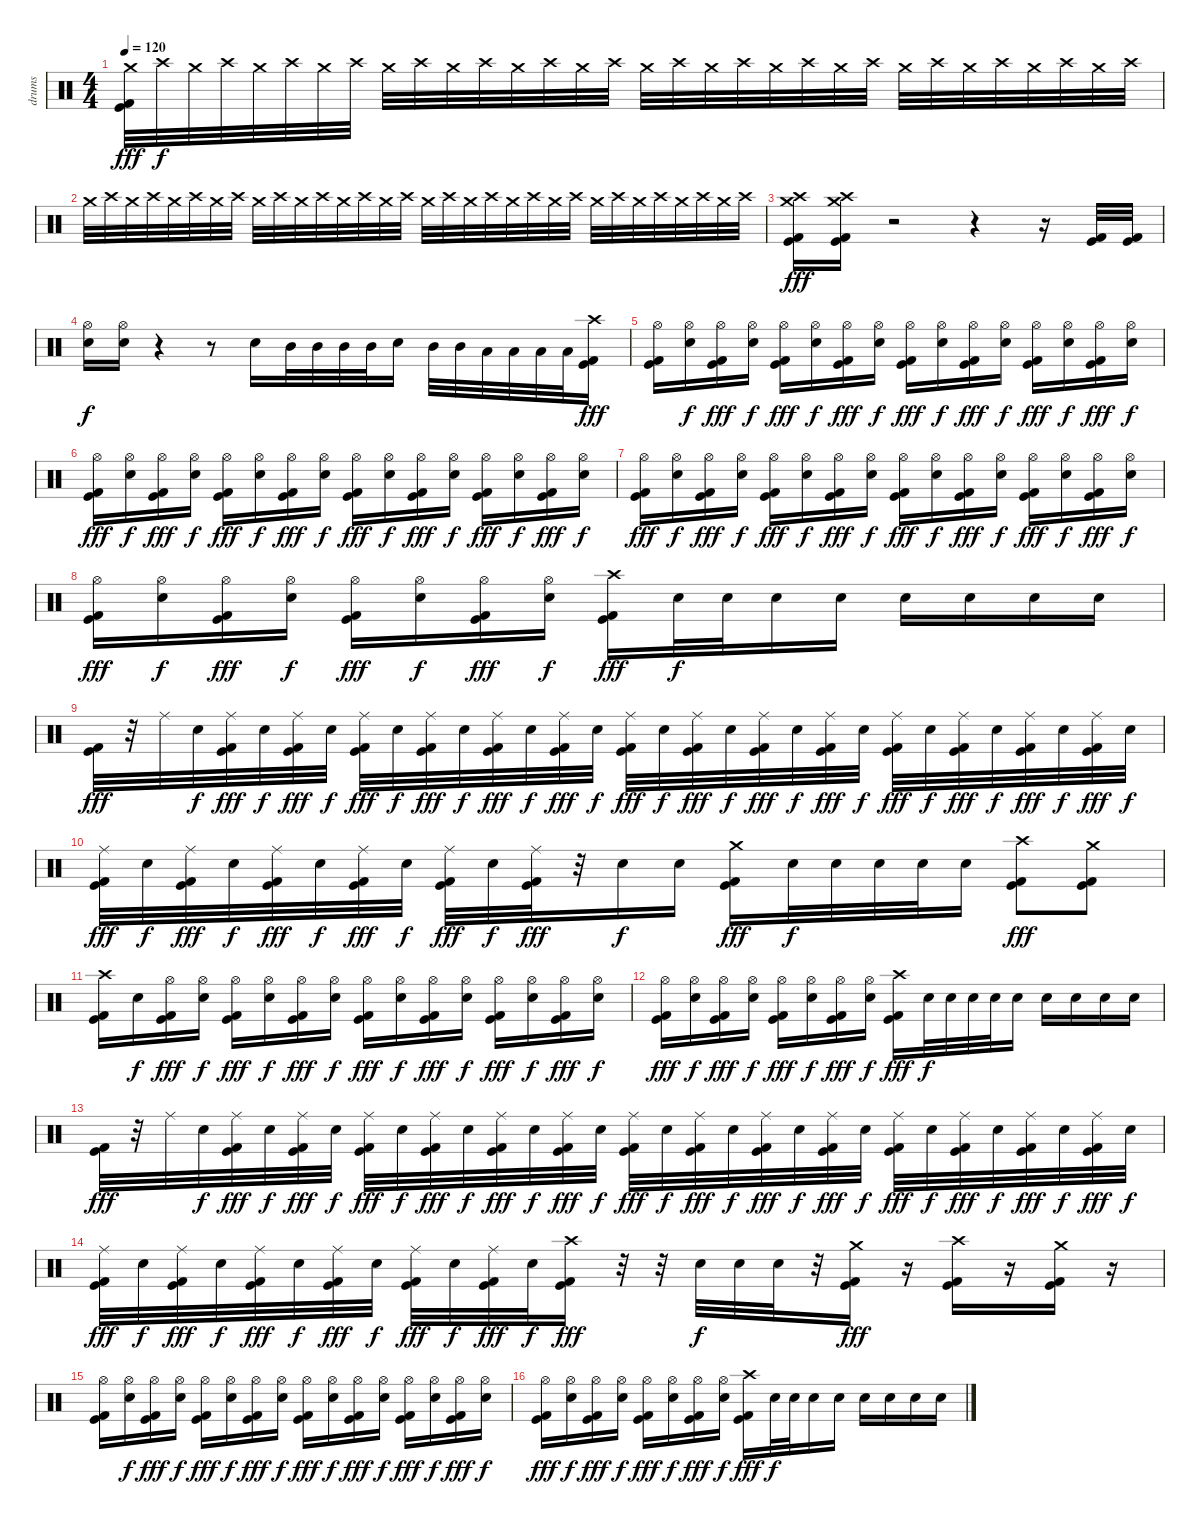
\track ("drums" "drums") {instrument percussion}
\staff {score}
\articulation defaults
\ts (4 4)
\tempo 120
\clef neutral
\ks c
("Crash medium (hit)" "Kick (hit)" "Kick (hit) 2").32{dy fff} "Crash high (hit)".32{dy f} "Crash medium (hit)".32 "Crash high (hit)".32 "Crash medium (hit)".32 "Crash high (hit)".32 "Crash medium (hit)".32 "Crash high (hit)".32 "Crash medium (hit)".32 "Crash high (hit)".32 "Crash medium (hit)".32 "Crash high (hit)".32 "Crash medium (hit)".32 "Crash high (hit)".32 "Crash medium (hit)".32 "Crash high (hit)".32 "Crash medium (hit)".32 "Crash high (hit)".32 "Crash medium (hit)".32 "Crash high (hit)".32 "Crash medium (hit)".32 "Crash high (hit)".32 "Crash medium (hit)".32 "Crash high (hit)".32 "Crash medium (hit)".32 "Crash high (hit)".32 "Crash medium (hit)".32 "Crash high (hit)".32 "Crash medium (hit)".32 "Crash high (hit)".32 "Crash medium (hit)".32 "Crash high (hit)".32 |
"Crash medium (hit)".32 "Crash high (hit)".32 "Crash medium (hit)".32 "Crash high (hit)".32 "Crash medium (hit)".32 "Crash high (hit)".32 "Crash medium (hit)".32 "Crash high (hit)".32 "Crash medium (hit)".32 "Crash high (hit)".32 "Crash medium (hit)".32 "Crash high (hit)".32 "Crash medium (hit)".32 "Crash high (hit)".32 "Crash medium (hit)".32 "Crash high (hit)".32 "Crash medium (hit)".32 "Crash high (hit)".32 "Crash medium (hit)".32 "Crash high (hit)".32 "Crash medium (hit)".32 "Crash high (hit)".32 "Crash medium (hit)".32 "Crash high (hit)".32 "Crash medium (hit)".32 "Crash high (hit)".32 "Crash medium (hit)".32 "Crash high (hit)".32 "Crash medium (hit)".32 "Crash high (hit)".32 "Crash medium (hit)".32 "Crash high (hit)".32 |
("Crash medium (hit)" "Crash high (hit)" "Kick (hit)" "Kick (hit) 2").16{dy fff} ("Crash medium (hit)" "Crash high (hit)" "Kick (hit)" "Kick (hit) 2").16 r.2 r.4 r.16 ("Kick (hit)" "Kick (hit) 2").32 ("Kick (hit)" "Kick (hit) 2").32 |
("Hi-Hat (open)" "Electric Snare (hit)").16{dy f} ("Hi-Hat (open)" "Electric Snare (hit)").16 r.4 r.8 "Electric Snare (hit)".16 "Mid Tom (hit)".32 "Mid Tom (hit)".32 "Mid Tom (hit)".32 "Mid Tom (hit)".32 "Electric Snare (hit)".16 "Mid Tom (hit)".32 "Mid Tom (hit)".32 "Low Tom (hit)".32 "Low Tom (hit)".32 "Low Tom (hit)".32 "Low Tom (hit)".32 ("Crash high (hit)" "Kick (hit)" "Kick (hit) 2").16{dy fff} |
("Hi-Hat (open)" "Kick (hit)" "Kick (hit) 2").16 ("Hi-Hat (open)" "Electric Snare (hit)").16{dy f} ("Hi-Hat (open)" "Kick (hit)" "Kick (hit) 2").16{dy fff} ("Hi-Hat (open)" "Electric Snare (hit)").16{dy f} ("Hi-Hat (open)" "Kick (hit)" "Kick (hit) 2").16{dy fff} ("Hi-Hat (open)" "Electric Snare (hit)").16{dy f} ("Hi-Hat (open)" "Kick (hit)" "Kick (hit) 2").16{dy fff} ("Hi-Hat (open)" "Electric Snare (hit)").16{dy f} ("Hi-Hat (open)" "Kick (hit)" "Kick (hit) 2").16{dy fff} ("Hi-Hat (open)" "Electric Snare (hit)").16{dy f} ("Hi-Hat (open)" "Kick (hit)" "Kick (hit) 2").16{dy fff} ("Hi-Hat (open)" "Electric Snare (hit)").16{dy f} ("Hi-Hat (open)" "Kick (hit)" "Kick (hit) 2").16{dy fff} ("Hi-Hat (open)" "Electric Snare (hit)").16{dy f} ("Hi-Hat (open)" "Kick (hit)" "Kick (hit) 2").16{dy fff} ("Hi-Hat (open)" "Electric Snare (hit)").16{dy f} |
("Hi-Hat (open)" "Kick (hit)" "Kick (hit) 2").16{dy fff} ("Hi-Hat (open)" "Electric Snare (hit)").16{dy f} ("Hi-Hat (open)" "Kick (hit)" "Kick (hit) 2").16{dy fff} ("Hi-Hat (open)" "Electric Snare (hit)").16{dy f} ("Hi-Hat (open)" "Kick (hit)" "Kick (hit) 2").16{dy fff} ("Hi-Hat (open)" "Electric Snare (hit)").16{dy f} ("Hi-Hat (open)" "Kick (hit)" "Kick (hit) 2").16{dy fff} ("Hi-Hat (open)" "Electric Snare (hit)").16{dy f} ("Hi-Hat (open)" "Kick (hit)" "Kick (hit) 2").16{dy fff} ("Hi-Hat (open)" "Electric Snare (hit)").16{dy f} ("Hi-Hat (open)" "Kick (hit)" "Kick (hit) 2").16{dy fff} ("Hi-Hat (open)" "Electric Snare (hit)").16{dy f} ("Hi-Hat (open)" "Kick (hit)" "Kick (hit) 2").16{dy fff} ("Hi-Hat (open)" "Electric Snare (hit)").16{dy f} ("Hi-Hat (open)" "Kick (hit)" "Kick (hit) 2").16{dy fff} ("Hi-Hat (open)" "Electric Snare (hit)").16{dy f} |
("Hi-Hat (open)" "Kick (hit)" "Kick (hit) 2").16{dy fff} ("Hi-Hat (open)" "Electric Snare (hit)").16{dy f} ("Hi-Hat (open)" "Kick (hit)" "Kick (hit) 2").16{dy fff} ("Hi-Hat (open)" "Electric Snare (hit)").16{dy f} ("Hi-Hat (open)" "Kick (hit)" "Kick (hit) 2").16{dy fff} ("Hi-Hat (open)" "Electric Snare (hit)").16{dy f} ("Hi-Hat (open)" "Kick (hit)" "Kick (hit) 2").16{dy fff} ("Hi-Hat (open)" "Electric Snare (hit)").16{dy f} ("Hi-Hat (open)" "Kick (hit)" "Kick (hit) 2").16{dy fff} ("Hi-Hat (open)" "Electric Snare (hit)").16{dy f} ("Hi-Hat (open)" "Kick (hit)" "Kick (hit) 2").16{dy fff} ("Hi-Hat (open)" "Electric Snare (hit)").16{dy f} ("Hi-Hat (open)" "Kick (hit)" "Kick (hit) 2").16{dy fff} ("Hi-Hat (open)" "Electric Snare (hit)").16{dy f} ("Hi-Hat (open)" "Kick (hit)" "Kick (hit) 2").16{dy fff} ("Hi-Hat (open)" "Electric Snare (hit)").16{dy f} |
("Hi-Hat (open)" "Kick (hit)" "Kick (hit) 2").16{dy fff} ("Hi-Hat (open)" "Electric Snare (hit)").16{dy f} ("Hi-Hat (open)" "Kick (hit)" "Kick (hit) 2").16{dy fff} ("Hi-Hat (open)" "Electric Snare (hit)").16{dy f} ("Hi-Hat (open)" "Kick (hit)" "Kick (hit) 2").16{dy fff} ("Hi-Hat (open)" "Electric Snare (hit)").16{dy f} ("Hi-Hat (open)" "Kick (hit)" "Kick (hit) 2").16{dy fff} ("Hi-Hat (open)" "Electric Snare (hit)").16{dy f} ("Crash high (hit)" "Kick (hit)" "Kick (hit) 2").16{dy fff} "Electric Snare (hit)".32{dy f} "Electric Snare (hit)".32 "Electric Snare (hit)".16 "Electric Snare (hit)".16 "Electric Snare (hit)".16 "Electric Snare (hit)".16 "Electric Snare (hit)".16 "Electric Snare (hit)".16 |
("Kick (hit)" "Kick (hit) 2").32{dy fff} r.32 "Ride (middle)".32 "Electric Snare (hit)".32{dy f} ("Ride (middle)" "Kick (hit)" "Kick (hit) 2").32{dy fff} "Electric Snare (hit)".32{dy f} ("Ride (middle)" "Kick (hit)" "Kick (hit) 2").32{dy fff} "Electric Snare (hit)".32{dy f} ("Ride (middle)" "Kick (hit)" "Kick (hit) 2").32{dy fff} "Electric Snare (hit)".32{dy f} ("Ride (middle)" "Kick (hit)" "Kick (hit) 2").32{dy fff} "Electric Snare (hit)".32{dy f} ("Ride (middle)" "Kick (hit)" "Kick (hit) 2").32{dy fff} "Electric Snare (hit)".32{dy f} ("Ride (middle)" "Kick (hit)" "Kick (hit) 2").32{dy fff} "Electric Snare (hit)".32{dy f} ("Ride (middle)" "Kick (hit)" "Kick (hit) 2").32{dy fff} "Electric Snare (hit)".32{dy f} ("Ride (middle)" "Kick (hit)" "Kick (hit) 2").32{dy fff} "Electric Snare (hit)".32{dy f} ("Ride (middle)" "Kick (hit)" "Kick (hit) 2").32{dy fff} "Electric Snare (hit)".32{dy f} ("Ride (middle)" "Kick (hit)" "Kick (hit) 2").32{dy fff} "Electric Snare (hit)".32{dy f} ("Ride (middle)" "Kick (hit)" "Kick (hit) 2").32{dy fff} "Electric Snare (hit)".32{dy f} ("Ride (middle)" "Kick (hit)" "Kick (hit) 2").32{dy fff} "Electric Snare (hit)".32{dy f} ("Ride (middle)" "Kick (hit)" "Kick (hit) 2").32{dy fff} "Electric Snare (hit)".32{dy f} ("Ride (middle)" "Kick (hit)" "Kick (hit) 2").32{dy fff} "Electric Snare (hit)".32{dy f} |
("Ride (middle)" "Kick (hit)" "Kick (hit) 2").32{dy fff} "Electric Snare (hit)".32{dy f} ("Ride (middle)" "Kick (hit)" "Kick (hit) 2").32{dy fff} "Electric Snare (hit)".32{dy f} ("Ride (middle)" "Kick (hit)" "Kick (hit) 2").32{dy fff} "Electric Snare (hit)".32{dy f} ("Ride (middle)" "Kick (hit)" "Kick (hit) 2").32{dy fff} "Electric Snare (hit)".32{dy f} ("Ride (middle)" "Kick (hit)" "Kick (hit) 2").32{dy fff} "Electric Snare (hit)".32{dy f} ("Ride (middle)" "Kick (hit)" "Kick (hit) 2").32{dy fff} r.32 "Electric Snare (hit)".16{dy f} "Electric Snare (hit)".16 ("Crash medium (hit)" "Kick (hit)" "Kick (hit) 2").16{dy fff} "Electric Snare (hit)".32{dy f} "Electric Snare (hit)".32 "Electric Snare (hit)".32 "Electric Snare (hit)".32 "Electric Snare (hit)".16 ("Crash high (hit)" "Kick (hit)" "Kick (hit) 2").8{dy fff} ("Crash medium (hit)" "Kick (hit)" "Kick (hit) 2").8 |
("Crash high (hit)" "Kick (hit)" "Kick (hit) 2").16 "Electric Snare (hit)".16{dy f} ("Hi-Hat (open)" "Kick (hit)" "Kick (hit) 2").16{dy fff} ("Hi-Hat (open)" "Electric Snare (hit)").16{dy f} ("Hi-Hat (open)" "Kick (hit)" "Kick (hit) 2").16{dy fff} ("Hi-Hat (open)" "Electric Snare (hit)").16{dy f} ("Hi-Hat (open)" "Kick (hit)" "Kick (hit) 2").16{dy fff} ("Hi-Hat (open)" "Electric Snare (hit)").16{dy f} ("Hi-Hat (open)" "Kick (hit)" "Kick (hit) 2").16{dy fff} ("Hi-Hat (open)" "Electric Snare (hit)").16{dy f} ("Hi-Hat (open)" "Kick (hit)" "Kick (hit) 2").16{dy fff} ("Hi-Hat (open)" "Electric Snare (hit)").16{dy f} ("Hi-Hat (open)" "Kick (hit)" "Kick (hit) 2").16{dy fff} ("Hi-Hat (open)" "Electric Snare (hit)").16{dy f} ("Hi-Hat (open)" "Kick (hit)" "Kick (hit) 2").16{dy fff} ("Hi-Hat (open)" "Electric Snare (hit)").16{dy f} |
("Hi-Hat (open)" "Kick (hit)" "Kick (hit) 2").16{dy fff} ("Hi-Hat (open)" "Electric Snare (hit)").16{dy f} ("Hi-Hat (open)" "Kick (hit)" "Kick (hit) 2").16{dy fff} ("Hi-Hat (open)" "Electric Snare (hit)").16{dy f} ("Hi-Hat (open)" "Kick (hit)" "Kick (hit) 2").16{dy fff} ("Hi-Hat (open)" "Electric Snare (hit)").16{dy f} ("Hi-Hat (open)" "Kick (hit)" "Kick (hit) 2").16{dy fff} ("Hi-Hat (open)" "Electric Snare (hit)").16{dy f} ("Crash high (hit)" "Kick (hit)" "Kick (hit) 2").16{dy fff} "Electric Snare (hit)".32{dy f} "Electric Snare (hit)".32 "Electric Snare (hit)".32 "Electric Snare (hit)".32 "Electric Snare (hit)".16 "Electric Snare (hit)".16 "Electric Snare (hit)".16 "Electric Snare (hit)".16 "Electric Snare (hit)".16 |
("Kick (hit)" "Kick (hit) 2").32{dy fff} r.32 "Ride (middle)".32 "Electric Snare (hit)".32{dy f} ("Ride (middle)" "Kick (hit)" "Kick (hit) 2").32{dy fff} "Electric Snare (hit)".32{dy f} ("Ride (middle)" "Kick (hit)" "Kick (hit) 2").32{dy fff} "Electric Snare (hit)".32{dy f} ("Ride (middle)" "Kick (hit)" "Kick (hit) 2").32{dy fff} "Electric Snare (hit)".32{dy f} ("Ride (middle)" "Kick (hit)" "Kick (hit) 2").32{dy fff} "Electric Snare (hit)".32{dy f} ("Ride (middle)" "Kick (hit)" "Kick (hit) 2").32{dy fff} "Electric Snare (hit)".32{dy f} ("Ride (middle)" "Kick (hit)" "Kick (hit) 2").32{dy fff} "Electric Snare (hit)".32{dy f} ("Ride (middle)" "Kick (hit)" "Kick (hit) 2").32{dy fff} "Electric Snare (hit)".32{dy f} ("Ride (middle)" "Kick (hit)" "Kick (hit) 2").32{dy fff} "Electric Snare (hit)".32{dy f} ("Ride (middle)" "Kick (hit)" "Kick (hit) 2").32{dy fff} "Electric Snare (hit)".32{dy f} ("Ride (middle)" "Kick (hit)" "Kick (hit) 2").32{dy fff} "Electric Snare (hit)".32{dy f} ("Ride (middle)" "Kick (hit)" "Kick (hit) 2").32{dy fff} "Electric Snare (hit)".32{dy f} ("Ride (middle)" "Kick (hit)" "Kick (hit) 2").32{dy fff} "Electric Snare (hit)".32{dy f} ("Ride (middle)" "Kick (hit)" "Kick (hit) 2").32{dy fff} "Electric Snare (hit)".32{dy f} ("Ride (middle)" "Kick (hit)" "Kick (hit) 2").32{dy fff} "Electric Snare (hit)".32{dy f} |
("Ride (middle)" "Kick (hit)" "Kick (hit) 2").32{dy fff} "Electric Snare (hit)".32{dy f} ("Ride (middle)" "Kick (hit)" "Kick (hit) 2").32{dy fff} "Electric Snare (hit)".32{dy f} ("Ride (middle)" "Kick (hit)" "Kick (hit) 2").32{dy fff} "Electric Snare (hit)".32{dy f} ("Ride (middle)" "Kick (hit)" "Kick (hit) 2").32{dy fff} "Electric Snare (hit)".32{dy f} ("Ride (middle)" "Kick (hit)" "Kick (hit) 2").32{dy fff} "Electric Snare (hit)".32{dy f} ("Ride (middle)" "Kick (hit)" "Kick (hit) 2").32{dy fff} "Electric Snare (hit)".32{dy f} ("Crash high (hit)" "Kick (hit)" "Kick (hit) 2").16{dy fff} r.32 r.32 "Electric Snare (hit)".32{dy f} "Electric Snare (hit)".32 "Electric Snare (hit)".32 r.32 ("Crash medium (hit)" "Kick (hit)" "Kick (hit) 2").16{dy fff} r.16 ("Crash high (hit)" "Kick (hit)" "Kick (hit) 2").16 r.16 ("Crash medium (hit)" "Kick (hit)" "Kick (hit) 2").16 r.16 |
("Hi-Hat (open)" "Kick (hit)" "Kick (hit) 2").16 ("Hi-Hat (open)" "Electric Snare (hit)").16{dy f} ("Hi-Hat (open)" "Kick (hit)" "Kick (hit) 2").16{dy fff} ("Hi-Hat (open)" "Electric Snare (hit)").16{dy f} ("Hi-Hat (open)" "Kick (hit)" "Kick (hit) 2").16{dy fff} ("Hi-Hat (open)" "Electric Snare (hit)").16{dy f} ("Hi-Hat (open)" "Kick (hit)" "Kick (hit) 2").16{dy fff} ("Hi-Hat (open)" "Electric Snare (hit)").16{dy f} ("Hi-Hat (open)" "Kick (hit)" "Kick (hit) 2").16{dy fff} ("Hi-Hat (open)" "Electric Snare (hit)").16{dy f} ("Hi-Hat (open)" "Kick (hit)" "Kick (hit) 2").16{dy fff} ("Hi-Hat (open)" "Electric Snare (hit)").16{dy f} ("Hi-Hat (open)" "Kick (hit)" "Kick (hit) 2").16{dy fff} ("Hi-Hat (open)" "Electric Snare (hit)").16{dy f} ("Hi-Hat (open)" "Kick (hit)" "Kick (hit) 2").16{dy fff} ("Hi-Hat (open)" "Electric Snare (hit)").16{dy f} |
("Hi-Hat (open)" "Kick (hit)" "Kick (hit) 2").16{dy fff} ("Hi-Hat (open)" "Electric Snare (hit)").16{dy f} ("Hi-Hat (open)" "Kick (hit)" "Kick (hit) 2").16{dy fff} ("Hi-Hat (open)" "Electric Snare (hit)").16{dy f} ("Hi-Hat (open)" "Kick (hit)" "Kick (hit) 2").16{dy fff} ("Hi-Hat (open)" "Electric Snare (hit)").16{dy f} ("Hi-Hat (open)" "Kick (hit)" "Kick (hit) 2").16{dy fff} ("Hi-Hat (open)" "Electric Snare (hit)").16{dy f} ("Crash high (hit)" "Kick (hit)" "Kick (hit) 2").16{dy fff} "Electric Snare (hit)".32{dy f} "Electric Snare (hit)".32 "Electric Snare (hit)".16 "Electric Snare (hit)".16 "Electric Snare (hit)".16 "Electric Snare (hit)".16 "Electric Snare (hit)".16 "Electric Snare (hit)".16
